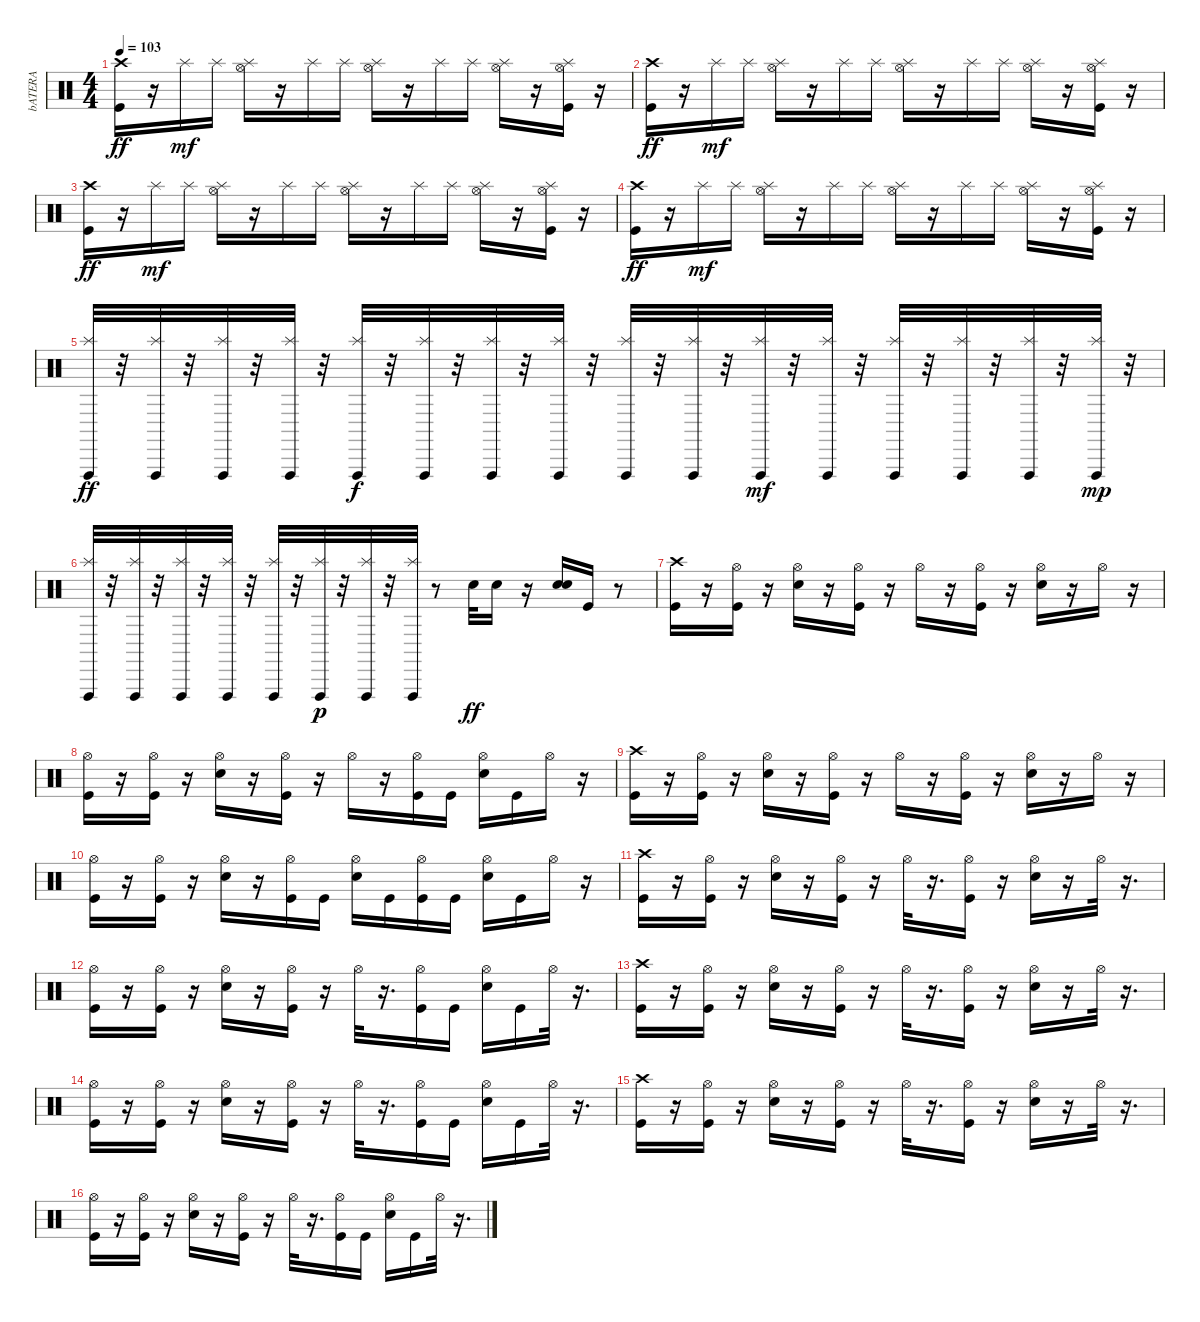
\track ("bATERA" "bATERA") {instrument percussion}
\staff {score}
\articulation defaults
\ts (4 4)
\tempo 103
\clef neutral
\ks c
("Crash high (hit)" "Kick (hit)").16{dy ff} r.16 "Splash (hit)".16{dy mf} "Splash (hit)".16 ("Hi-Hat (open)" "Splash (hit)").16 r.16 "Splash (hit)".16 "Splash (hit)".16 ("Hi-Hat (open)" "Splash (hit)").16 r.16 "Splash (hit)".16 "Splash (hit)".16 ("Hi-Hat (open)" "Splash (hit)").16 r.16 ("Kick (hit)" "Hi-Hat (open)" "Splash (hit)").16 r.16 |
("Crash high (hit)" "Kick (hit)").16{dy ff} r.16 "Splash (hit)".16{dy mf} "Splash (hit)".16 ("Hi-Hat (open)" "Splash (hit)").16 r.16 "Splash (hit)".16 "Splash (hit)".16 ("Hi-Hat (open)" "Splash (hit)").16 r.16 "Splash (hit)".16 "Splash (hit)".16 ("Hi-Hat (open)" "Splash (hit)").16 r.16 ("Kick (hit)" "Hi-Hat (open)" "Splash (hit)").16 r.16 |
("Crash high (hit)" "Kick (hit)").16{dy ff} r.16 "Splash (hit)".16{dy mf} "Splash (hit)".16 ("Hi-Hat (open)" "Splash (hit)").16 r.16 "Splash (hit)".16 "Splash (hit)".16 ("Hi-Hat (open)" "Splash (hit)").16 r.16 "Splash (hit)".16 "Splash (hit)".16 ("Hi-Hat (open)" "Splash (hit)").16 r.16 ("Kick (hit)" "Hi-Hat (open)" "Splash (hit)").16 r.16 |
("Crash high (hit)" "Kick (hit)").16{dy ff} r.16 "Splash (hit)".16{dy mf} "Splash (hit)".16 ("Hi-Hat (open)" "Splash (hit)").16 r.16 "Splash (hit)".16 "Splash (hit)".16 ("Hi-Hat (open)" "Splash (hit)").16 r.16 "Splash (hit)".16 "Splash (hit)".16 ("Hi-Hat (open)" "Splash (hit)").16 r.16 ("Kick (hit)" "Hi-Hat (open)" "Splash (hit)").16 r.16 |
("Vibraslap (hit)" "Splash (hit)").32{dy ff} r.32 ("Vibraslap (hit)" "Splash (hit)").32 r.32 ("Vibraslap (hit)" "Splash (hit)").32 r.32 ("Vibraslap (hit)" "Splash (hit)").32 r.32 ("Vibraslap (hit)" "Splash (hit)").32{dy f} r.32 ("Vibraslap (hit)" "Splash (hit)").32 r.32 ("Vibraslap (hit)" "Splash (hit)").32 r.32 ("Vibraslap (hit)" "Splash (hit)").32 r.32 ("Vibraslap (hit)" "Splash (hit)").32 r.32 ("Vibraslap (hit)" "Splash (hit)").32 r.32 ("Vibraslap (hit)" "Splash (hit)").32{dy mf} r.32 ("Vibraslap (hit)" "Splash (hit)").32 r.32 ("Vibraslap (hit)" "Splash (hit)").32 r.32 ("Vibraslap (hit)" "Splash (hit)").32 r.32 ("Vibraslap (hit)" "Splash (hit)").32 r.32 ("Vibraslap (hit)" "Splash (hit)").32{dy mp} r.32 |
("Vibraslap (hit)" "Splash (hit)").32 r.32 ("Vibraslap (hit)" "Splash (hit)").32 r.32 ("Vibraslap (hit)" "Splash (hit)").32 r.32 ("Vibraslap (hit)" "Splash (hit)").32 r.32 ("Vibraslap (hit)" "Splash (hit)").32 r.32 ("Vibraslap (hit)" "Splash (hit)").32{dy p} r.32 ("Vibraslap (hit)" "Splash (hit)").32 r.32 ("Vibraslap (hit)" "Splash (hit)").32 r.8 "Snare (hit) 2".32{dy ff} "Snare (hit) 2".16 r.16 ("Snare (hit) 2" "Snare (hit) 2").16 "Kick (hit)".16 r.8 |
("Crash high (hit)" "Kick (hit)").16 r.16 ("Kick (hit)" "Hi-Hat (open)").16 r.16 ("Snare (hit) 2" "Hi-Hat (open)").16 r.16 ("Kick (hit)" "Hi-Hat (open)").16 r.16 "Hi-Hat (open)".16 r.16 ("Kick (hit)" "Hi-Hat (open)").16 r.16 ("Hi-Hat (open)" "Snare (hit) 2").16 r.16 "Hi-Hat (open)".16 r.16 |
("Kick (hit)" "Hi-Hat (open)").16 r.16 ("Kick (hit)" "Hi-Hat (open)").16 r.16 ("Snare (hit) 2" "Hi-Hat (open)").16 r.16 ("Kick (hit)" "Hi-Hat (open)").16 r.16 "Hi-Hat (open)".16 r.16 ("Kick (hit)" "Hi-Hat (open)").16 "Kick (hit)".16 ("Hi-Hat (open)" "Snare (hit) 2").16 "Kick (hit)".16 "Hi-Hat (open)".16 r.16 |
("Kick (hit)" "Crash high (hit)").16 r.16 ("Kick (hit)" "Hi-Hat (open)").16 r.16 ("Snare (hit) 2" "Hi-Hat (open)").16 r.16 ("Kick (hit)" "Hi-Hat (open)").16 r.16 "Hi-Hat (open)".16 r.16 ("Kick (hit)" "Hi-Hat (open)").16 r.16 ("Hi-Hat (open)" "Snare (hit) 2").16 r.16 "Hi-Hat (open)".16 r.16 |
("Kick (hit)" "Hi-Hat (open)").16 r.16 ("Kick (hit)" "Hi-Hat (open)").16 r.16 ("Snare (hit) 2" "Hi-Hat (open)").16 r.16 ("Kick (hit)" "Hi-Hat (open)").16 "Kick (hit)".16 ("Hi-Hat (open)" "Snare (hit) 2").16 "Kick (hit)".16 ("Kick (hit)" "Hi-Hat (open)").16 "Kick (hit)".16 ("Hi-Hat (open)" "Snare (hit) 2").16 "Kick (hit)".16 "Hi-Hat (open)".16 r.16 |
("Crash high (hit)" "Kick (hit)").16 r.16 ("Kick (hit)" "Hi-Hat (open)").16 r.16 ("Snare (hit) 2" "Hi-Hat (open)").16 r.16 ("Kick (hit)" "Hi-Hat (open)").16 r.16 "Hi-Hat (open)".32 r.16{d} ("Kick (hit)" "Hi-Hat (open)").16 r.16 ("Snare (hit) 2" "Hi-Hat (open)").16 r.16 "Hi-Hat (open)".32 r.16{d} |
("Kick (hit)" "Hi-Hat (open)").16 r.16 ("Kick (hit)" "Hi-Hat (open)").16 r.16 ("Snare (hit) 2" "Hi-Hat (open)").16 r.16 ("Kick (hit)" "Hi-Hat (open)").16 r.16 "Hi-Hat (open)".32 r.16{d} ("Kick (hit)" "Hi-Hat (open)").16 "Kick (hit)".16 ("Snare (hit) 2" "Hi-Hat (open)").16 "Kick (hit)".16 "Hi-Hat (open)".32 r.16{d} |
("Kick (hit)" "Crash high (hit)").16 r.16 ("Kick (hit)" "Hi-Hat (open)").16 r.16 ("Snare (hit) 2" "Hi-Hat (open)").16 r.16 ("Kick (hit)" "Hi-Hat (open)").16 r.16 "Hi-Hat (open)".32 r.16{d} ("Kick (hit)" "Hi-Hat (open)").16 r.16 ("Snare (hit) 2" "Hi-Hat (open)").16 r.16 "Hi-Hat (open)".32 r.16{d} |
("Kick (hit)" "Hi-Hat (open)").16 r.16 ("Kick (hit)" "Hi-Hat (open)").16 r.16 ("Snare (hit) 2" "Hi-Hat (open)").16 r.16 ("Kick (hit)" "Hi-Hat (open)").16 r.16 "Hi-Hat (open)".32 r.16{d} ("Kick (hit)" "Hi-Hat (open)").16 "Kick (hit)".16 ("Snare (hit) 2" "Hi-Hat (open)").16 "Kick (hit)".16 "Hi-Hat (open)".32 r.16{d} |
("Crash high (hit)" "Kick (hit)").16 r.16 ("Kick (hit)" "Hi-Hat (open)").16 r.16 ("Snare (hit) 2" "Hi-Hat (open)").16 r.16 ("Kick (hit)" "Hi-Hat (open)").16 r.16 "Hi-Hat (open)".32 r.16{d} ("Kick (hit)" "Hi-Hat (open)").16 r.16 ("Snare (hit) 2" "Hi-Hat (open)").16 r.16 "Hi-Hat (open)".32 r.16{d} |
("Kick (hit)" "Hi-Hat (open)").16 r.16 ("Kick (hit)" "Hi-Hat (open)").16 r.16 ("Snare (hit) 2" "Hi-Hat (open)").16 r.16 ("Kick (hit)" "Hi-Hat (open)").16 r.16 "Hi-Hat (open)".32 r.16{d} ("Kick (hit)" "Hi-Hat (open)").16 "Kick (hit)".16 ("Snare (hit) 2" "Hi-Hat (open)").16 "Kick (hit)".16 "Hi-Hat (open)".32 r.16{d}
